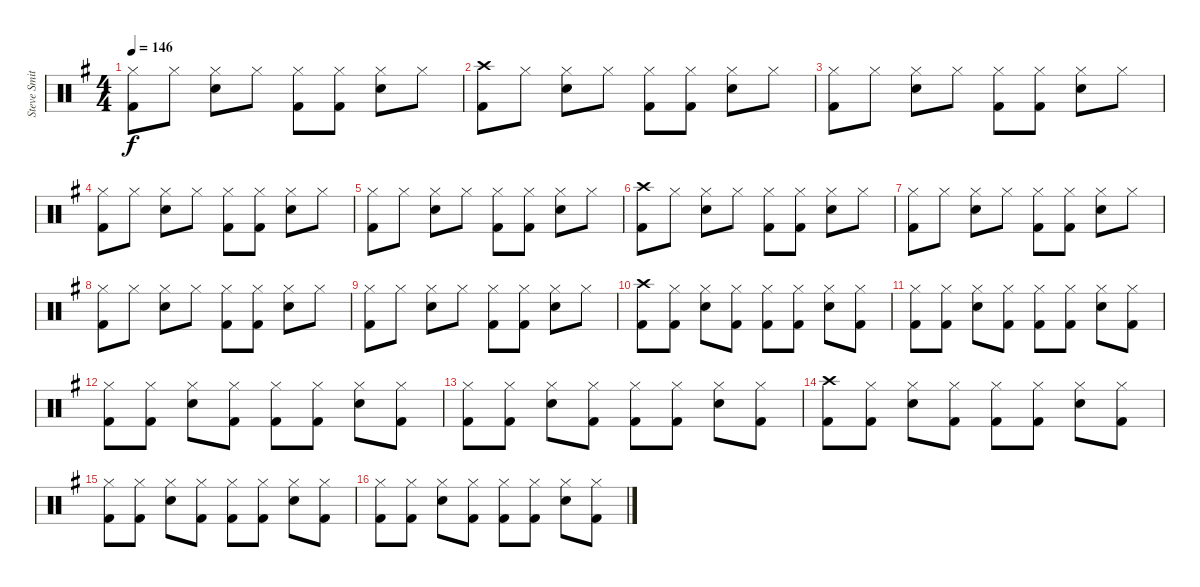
\track ("Steve Smith" "Steve Smit") {instrument percussion}
\staff {score}
\articulation defaults
\ts (4 4)
\tempo 146
\clef neutral
\ks g
("Hi-Hat (closed)" "Kick (hit) 2").8{dy f} "Hi-Hat (closed)".8 ("Hi-Hat (closed)" "Snare (hit) 2").8 "Hi-Hat (closed)".8 ("Hi-Hat (closed)" "Kick (hit) 2").8 ("Hi-Hat (closed)" "Kick (hit) 2").8 ("Hi-Hat (closed)" "Snare (hit) 2").8 "Hi-Hat (closed)".8 |
("Crash high (hit)" "Kick (hit) 2").8 "Hi-Hat (closed)".8 ("Hi-Hat (closed)" "Snare (hit) 2").8 "Hi-Hat (closed)".8 ("Hi-Hat (closed)" "Kick (hit) 2").8 ("Hi-Hat (closed)" "Kick (hit) 2").8 ("Hi-Hat (closed)" "Snare (hit) 2").8 "Hi-Hat (closed)".8 |
("Hi-Hat (closed)" "Kick (hit) 2").8 "Hi-Hat (closed)".8 ("Hi-Hat (closed)" "Snare (hit) 2").8 "Hi-Hat (closed)".8 ("Hi-Hat (closed)" "Kick (hit) 2").8 ("Hi-Hat (closed)" "Kick (hit) 2").8 ("Hi-Hat (closed)" "Snare (hit) 2").8 "Hi-Hat (closed)".8 |
("Hi-Hat (closed)" "Kick (hit) 2").8 "Hi-Hat (closed)".8 ("Hi-Hat (closed)" "Snare (hit) 2").8 "Hi-Hat (closed)".8 ("Hi-Hat (closed)" "Kick (hit) 2").8 ("Hi-Hat (closed)" "Kick (hit) 2").8 ("Hi-Hat (closed)" "Snare (hit) 2").8 "Hi-Hat (closed)".8 |
("Hi-Hat (closed)" "Kick (hit) 2").8 "Hi-Hat (closed)".8 ("Hi-Hat (closed)" "Snare (hit) 2").8 "Hi-Hat (closed)".8 ("Hi-Hat (closed)" "Kick (hit) 2").8 ("Hi-Hat (closed)" "Kick (hit) 2").8 ("Hi-Hat (closed)" "Snare (hit) 2").8 "Hi-Hat (closed)".8 |
("Crash high (hit)" "Kick (hit) 2").8 "Hi-Hat (closed)".8 ("Hi-Hat (closed)" "Snare (hit) 2").8 "Hi-Hat (closed)".8 ("Hi-Hat (closed)" "Kick (hit) 2").8 ("Hi-Hat (closed)" "Kick (hit) 2").8 ("Hi-Hat (closed)" "Snare (hit) 2").8 "Hi-Hat (closed)".8 |
("Hi-Hat (closed)" "Kick (hit) 2").8 "Hi-Hat (closed)".8 ("Hi-Hat (closed)" "Snare (hit) 2").8 "Hi-Hat (closed)".8 ("Hi-Hat (closed)" "Kick (hit) 2").8 ("Hi-Hat (closed)" "Kick (hit) 2").8 ("Hi-Hat (closed)" "Snare (hit) 2").8 "Hi-Hat (closed)".8 |
("Hi-Hat (closed)" "Kick (hit) 2").8 "Hi-Hat (closed)".8 ("Hi-Hat (closed)" "Snare (hit) 2").8 "Hi-Hat (closed)".8 ("Hi-Hat (closed)" "Kick (hit) 2").8 ("Hi-Hat (closed)" "Kick (hit) 2").8 ("Hi-Hat (closed)" "Snare (hit) 2").8 "Hi-Hat (closed)".8 |
("Hi-Hat (closed)" "Kick (hit) 2").8 "Hi-Hat (closed)".8 ("Hi-Hat (closed)" "Snare (hit) 2").8 "Hi-Hat (closed)".8 ("Hi-Hat (closed)" "Kick (hit) 2").8 ("Hi-Hat (closed)" "Kick (hit) 2").8 ("Hi-Hat (closed)" "Snare (hit) 2").8 "Hi-Hat (closed)".8 |
("Crash high (hit)" "Kick (hit) 2").8 ("Hi-Hat (closed)" "Kick (hit) 2").8 ("Hi-Hat (closed)" "Snare (hit) 2").8 ("Hi-Hat (closed)" "Kick (hit) 2").8 ("Hi-Hat (closed)" "Kick (hit) 2").8 ("Hi-Hat (closed)" "Kick (hit) 2").8 ("Hi-Hat (closed)" "Snare (hit) 2").8 ("Hi-Hat (closed)" "Kick (hit) 2").8 |
("Hi-Hat (closed)" "Kick (hit) 2").8 ("Hi-Hat (closed)" "Kick (hit) 2").8 ("Hi-Hat (closed)" "Snare (hit) 2").8 ("Hi-Hat (closed)" "Kick (hit) 2").8 ("Hi-Hat (closed)" "Kick (hit) 2").8 ("Hi-Hat (closed)" "Kick (hit) 2").8 ("Hi-Hat (closed)" "Snare (hit) 2").8 ("Hi-Hat (closed)" "Kick (hit) 2").8 |
("Hi-Hat (closed)" "Kick (hit) 2").8 ("Hi-Hat (closed)" "Kick (hit) 2").8 ("Hi-Hat (closed)" "Snare (hit) 2").8 ("Hi-Hat (closed)" "Kick (hit) 2").8 ("Hi-Hat (closed)" "Kick (hit) 2").8 ("Hi-Hat (closed)" "Kick (hit) 2").8 ("Hi-Hat (closed)" "Snare (hit) 2").8 ("Hi-Hat (closed)" "Kick (hit) 2").8 |
("Hi-Hat (closed)" "Kick (hit) 2").8 ("Hi-Hat (closed)" "Kick (hit) 2").8 ("Hi-Hat (closed)" "Snare (hit) 2").8 ("Hi-Hat (closed)" "Kick (hit) 2").8 ("Hi-Hat (closed)" "Kick (hit) 2").8 ("Hi-Hat (closed)" "Kick (hit) 2").8 ("Hi-Hat (closed)" "Snare (hit) 2").8 ("Hi-Hat (closed)" "Kick (hit) 2").8 |
("Crash high (hit)" "Kick (hit) 2").8 ("Hi-Hat (closed)" "Kick (hit) 2").8 ("Hi-Hat (closed)" "Snare (hit) 2").8 ("Hi-Hat (closed)" "Kick (hit) 2").8 ("Hi-Hat (closed)" "Kick (hit) 2").8 ("Hi-Hat (closed)" "Kick (hit) 2").8 ("Hi-Hat (closed)" "Snare (hit) 2").8 ("Hi-Hat (closed)" "Kick (hit) 2").8 |
("Hi-Hat (closed)" "Kick (hit) 2").8 ("Hi-Hat (closed)" "Kick (hit) 2").8 ("Hi-Hat (closed)" "Snare (hit) 2").8 ("Hi-Hat (closed)" "Kick (hit) 2").8 ("Hi-Hat (closed)" "Kick (hit) 2").8 ("Hi-Hat (closed)" "Kick (hit) 2").8 ("Hi-Hat (closed)" "Snare (hit) 2").8 ("Hi-Hat (closed)" "Kick (hit) 2").8 |
("Hi-Hat (closed)" "Kick (hit) 2").8 ("Hi-Hat (closed)" "Kick (hit) 2").8 ("Hi-Hat (closed)" "Snare (hit) 2").8 ("Hi-Hat (closed)" "Kick (hit) 2").8 ("Hi-Hat (closed)" "Kick (hit) 2").8 ("Hi-Hat (closed)" "Kick (hit) 2").8 ("Hi-Hat (closed)" "Snare (hit) 2").8 ("Hi-Hat (closed)" "Kick (hit) 2").8
